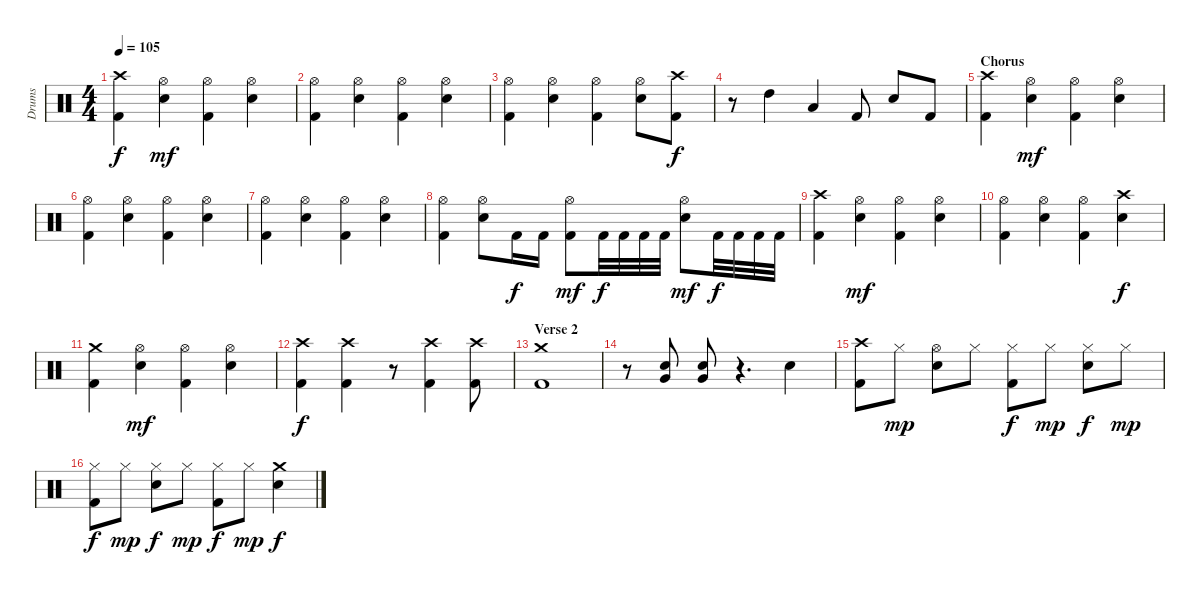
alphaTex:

\track ("Drums" "Drums") {instrument percussion}
\staff {score}
\articulation defaults
\ts (4 4)
\tempo 105
\clef neutral
\ks c
("Crash high (hit)" "Kick (hit) 2").4{dy f} ("Hi-Hat (open)" "Electric Snare (hit)").4{dy mf} ("Hi-Hat (open)" "Kick (hit) 2").4 ("Hi-Hat (open)" "Electric Snare (hit)").4 |
("Hi-Hat (open)" "Kick (hit) 2").4 ("Hi-Hat (open)" "Electric Snare (hit)").4 ("Hi-Hat (open)" "Kick (hit) 2").4 ("Hi-Hat (open)" "Electric Snare (hit)").4 |
("Hi-Hat (open)" "Kick (hit) 2").4 ("Hi-Hat (open)" "Electric Snare (hit)").4 ("Hi-Hat (open)" "Kick (hit) 2").4 ("Hi-Hat (open)" "Electric Snare (hit)").8 ("Crash high (hit)" "Kick (hit) 2").8{dy f} |
r.8 "High Tom (hit)".4 "Low Tom (hit)".4 "Kick (hit) 2".8 "Electric Snare (hit)".8 "Kick (hit) 2".8 |
\section ("" "Chorus")
("Crash high (hit)" "Kick (hit) 2").4 ("Hi-Hat (open)" "Electric Snare (hit)").4{dy mf} ("Hi-Hat (open)" "Kick (hit) 2").4 ("Hi-Hat (open)" "Electric Snare (hit)").4 |
("Hi-Hat (open)" "Kick (hit) 2").4 ("Hi-Hat (open)" "Electric Snare (hit)").4 ("Hi-Hat (open)" "Kick (hit) 2").4 ("Hi-Hat (open)" "Electric Snare (hit)").4 |
("Hi-Hat (open)" "Kick (hit) 2").4 ("Hi-Hat (open)" "Electric Snare (hit)").4 ("Hi-Hat (open)" "Kick (hit) 2").4 ("Hi-Hat (open)" "Electric Snare (hit)").4 |
("Hi-Hat (open)" "Kick (hit) 2").4 ("Hi-Hat (open)" "Electric Snare (hit)").8 "Kick (hit) 2".16{dy f} "Kick (hit) 2".16 ("Hi-Hat (open)" "Kick (hit) 2").8{dy mf} "Kick (hit) 2".32{dy f} "Kick (hit) 2".32 "Kick (hit) 2".32 "Kick (hit) 2".32 ("Hi-Hat (open)" "Electric Snare (hit)").8{dy mf} "Kick (hit) 2".32{dy f} "Kick (hit) 2".32 "Kick (hit) 2".32 "Kick (hit) 2".32 |
("Crash high (hit)" "Kick (hit) 2").4 ("Hi-Hat (open)" "Electric Snare (hit)").4{dy mf} ("Hi-Hat (open)" "Kick (hit) 2").4 ("Hi-Hat (open)" "Electric Snare (hit)").4 |
("Hi-Hat (open)" "Kick (hit) 2").4 ("Hi-Hat (open)" "Electric Snare (hit)").4 ("Hi-Hat (open)" "Kick (hit) 2").4 ("Crash high (hit)" "Electric Snare (hit)").4{dy f} |
("Crash medium (hit)" "Kick (hit) 2").4 ("Hi-Hat (open)" "Electric Snare (hit)").4{dy mf} ("Hi-Hat (open)" "Kick (hit) 2").4 ("Hi-Hat (open)" "Electric Snare (hit)").4 |
("Crash high (hit)" "Kick (hit) 2").4{dy f} ("Crash high (hit)" "Kick (hit) 2").4 r.8 ("Crash high (hit)" "Kick (hit) 2").4 ("Crash high (hit)" "Kick (hit) 2").8 |
\section ("" "Verse 2")
("Crash medium (hit)" "Kick (hit) 2").1 |
r.8 ("Very Low Tom (hit)" "Electric Snare (hit)").8 ("Very Low Tom (hit)" "Electric Snare (hit)").8 r.4{d} "Electric Snare (hit)".4 |
("Crash high (hit)" "Kick (hit) 2").8 "Hi-Hat (closed)".8{dy mp} ("Hi-Hat (open)" "Electric Snare (hit)").8 "Hi-Hat (closed)".8 ("Hi-Hat (closed)" "Kick (hit) 2").8{dy f} "Hi-Hat (closed)".8{dy mp} ("Hi-Hat (closed)" "Electric Snare (hit)").8{dy f} "Hi-Hat (closed)".8{dy mp} |
("Hi-Hat (closed)" "Kick (hit) 2").8{dy f} "Hi-Hat (closed)".8{dy mp} ("Hi-Hat (closed)" "Electric Snare (hit)").8{dy f} "Hi-Hat (closed)".8{dy mp} ("Hi-Hat (closed)" "Kick (hit) 2").8{dy f} "Hi-Hat (closed)".8{dy mp} ("Crash medium (hit)" "Electric Snare (hit)").4{dy f}
